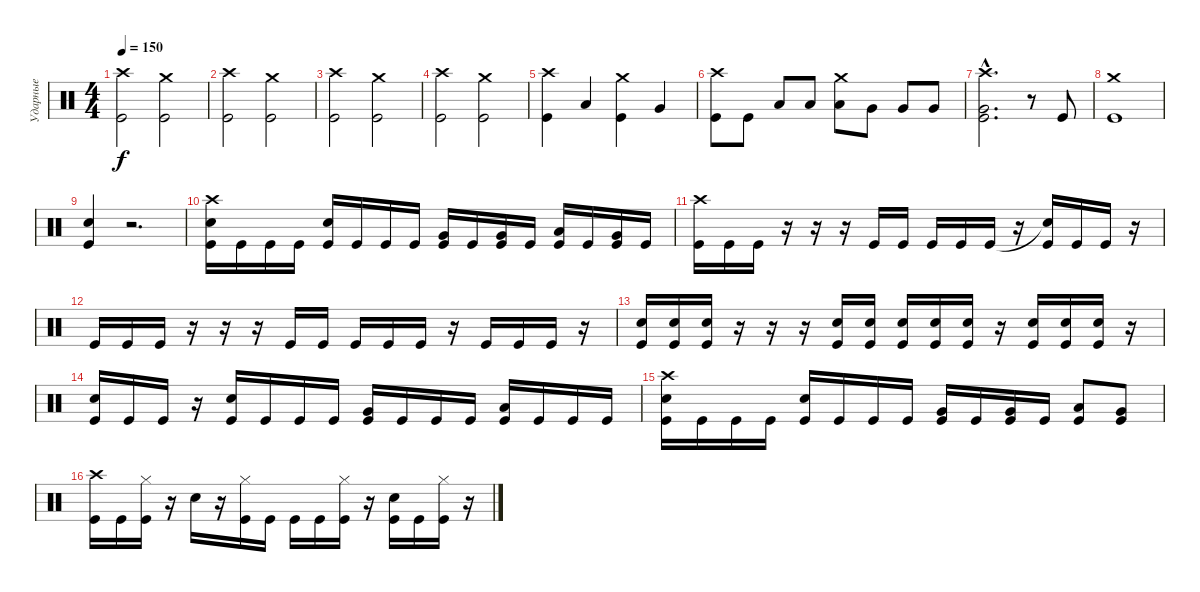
\track ("Ударные" "Ударные") {instrument percussion}
\staff {score}
\articulation defaults
\ts (4 4)
\tempo 150
\clef neutral
\ks c
("Crash high (hit)" "Kick (hit)").2{dy f} ("Crash medium (hit)" "Kick (hit)").2 |
("Crash high (hit)" "Kick (hit)").2 ("Crash medium (hit)" "Kick (hit)").2 |
("Crash high (hit)" "Kick (hit)").2 ("Crash medium (hit)" "Kick (hit)").2 |
("Crash high (hit)" "Kick (hit)").2 ("Crash medium (hit)" "Kick (hit)").2 |
("Crash high (hit)" "Kick (hit)").4 "Low Tom (hit)".4 ("Crash medium (hit)" "Kick (hit)").4 "Very Low Tom (hit)".4 |
("Crash high (hit)" "Kick (hit)").8 "Kick (hit)".8 "Low Tom (hit)".8 "Low Tom (hit)".8 ("Crash medium (hit)" "Low Tom (hit)").8 "Very Low Tom (hit)".8 "Very Low Tom (hit)".8 "Very Low Tom (hit)".8 |
("Crash high (hit)"{hac} "Very Low Tom (hit)"{hac} "Kick (hit)"{hac}).2{d} r.8 "Kick (hit)".8 |
("Crash medium (hit)" "Kick (hit)").1 |
("Electric Snare (hit)" "Kick (hit)").4 r.2{d} |
("Crash high (hit)" "Electric Snare (hit)" "Kick (hit)").16 "Kick (hit)".16 "Kick (hit)".16 "Kick (hit)".16 ("Electric Snare (hit)" "Kick (hit)").16 "Kick (hit)".16 "Kick (hit)".16 "Kick (hit)".16 ("Very Low Tom (hit)" "Kick (hit)").16 "Kick (hit)".16 ("Very Low Tom (hit)" "Kick (hit)").16 "Kick (hit)".16 ("Low Tom (hit)" "Kick (hit)").16 "Kick (hit)".16 ("Very Low Tom (hit)" "Kick (hit)").16 "Kick (hit)".16 |
("Crash high (hit)" "Kick (hit)").16 "Kick (hit)".16 "Kick (hit)".16 r.16 r.16 r.16 "Kick (hit)".16 "Kick (hit)".16 "Kick (hit)".16 "Kick (hit)".16 "Kick (hit)".16 r.16 ("Snare (hit)"{t} "Kick (hit)").16 "Kick (hit)".16 "Kick (hit)".16 r.16 |
"Kick (hit)".16 "Kick (hit)".16 "Kick (hit)".16 r.16 r.16 r.16 "Kick (hit)".16 "Kick (hit)".16 "Kick (hit)".16 "Kick (hit)".16 "Kick (hit)".16 r.16 "Kick (hit)".16 "Kick (hit)".16 "Kick (hit)".16 r.16 |
("Electric Snare (hit)" "Kick (hit)").16 ("Electric Snare (hit)" "Kick (hit)").16 ("Electric Snare (hit)" "Kick (hit)").16 r.16 r.16 r.16 ("Electric Snare (hit)" "Kick (hit)").16 ("Electric Snare (hit)" "Kick (hit)").16 ("Electric Snare (hit)" "Kick (hit)").16 ("Electric Snare (hit)" "Kick (hit)").16 ("Electric Snare (hit)" "Kick (hit)").16 r.16 ("Electric Snare (hit)" "Kick (hit)").16 ("Electric Snare (hit)" "Kick (hit)").16 ("Electric Snare (hit)" "Kick (hit)").16 r.16 |
("Electric Snare (hit)" "Kick (hit)").16 "Kick (hit)".16 "Kick (hit)".16 r.16 ("Electric Snare (hit)" "Kick (hit)").16 "Kick (hit)".16 "Kick (hit)".16 "Kick (hit)".16 ("Very Low Tom (hit)" "Kick (hit)").16 "Kick (hit)".16 "Kick (hit)".16 "Kick (hit)".16 ("Low Tom (hit)" "Kick (hit)").16 "Kick (hit)".16 "Kick (hit)".16 "Kick (hit)".16 |
("Crash high (hit)" "Electric Snare (hit)" "Kick (hit)").16 "Kick (hit)".16 "Kick (hit)".16 "Kick (hit)".16 ("Electric Snare (hit)" "Kick (hit)").16 "Kick (hit)".16 "Kick (hit)".16 "Kick (hit)".16 ("Very Low Tom (hit)" "Kick (hit)").16 "Kick (hit)".16 ("Very Low Tom (hit)" "Kick (hit)").16 "Kick (hit)".16 ("Low Tom (hit)" "Kick (hit)").8 ("Very Low Tom (hit)" "Kick (hit)").8 |
("Crash high (hit)" "Kick (hit)").16 "Kick (hit)".16 ("Hi-Hat (closed)" "Kick (hit)").16 r.16 "Electric Snare (hit)".16 r.16 ("Hi-Hat (closed)" "Kick (hit)").16 "Kick (hit)".16 "Kick (hit)".16 "Kick (hit)".16 ("Hi-Hat (closed)" "Kick (hit)").16 r.16 ("Electric Snare (hit)" "Kick (hit)").16 "Kick (hit)".16 ("Hi-Hat (closed)" "Kick (hit)").16 r.16
